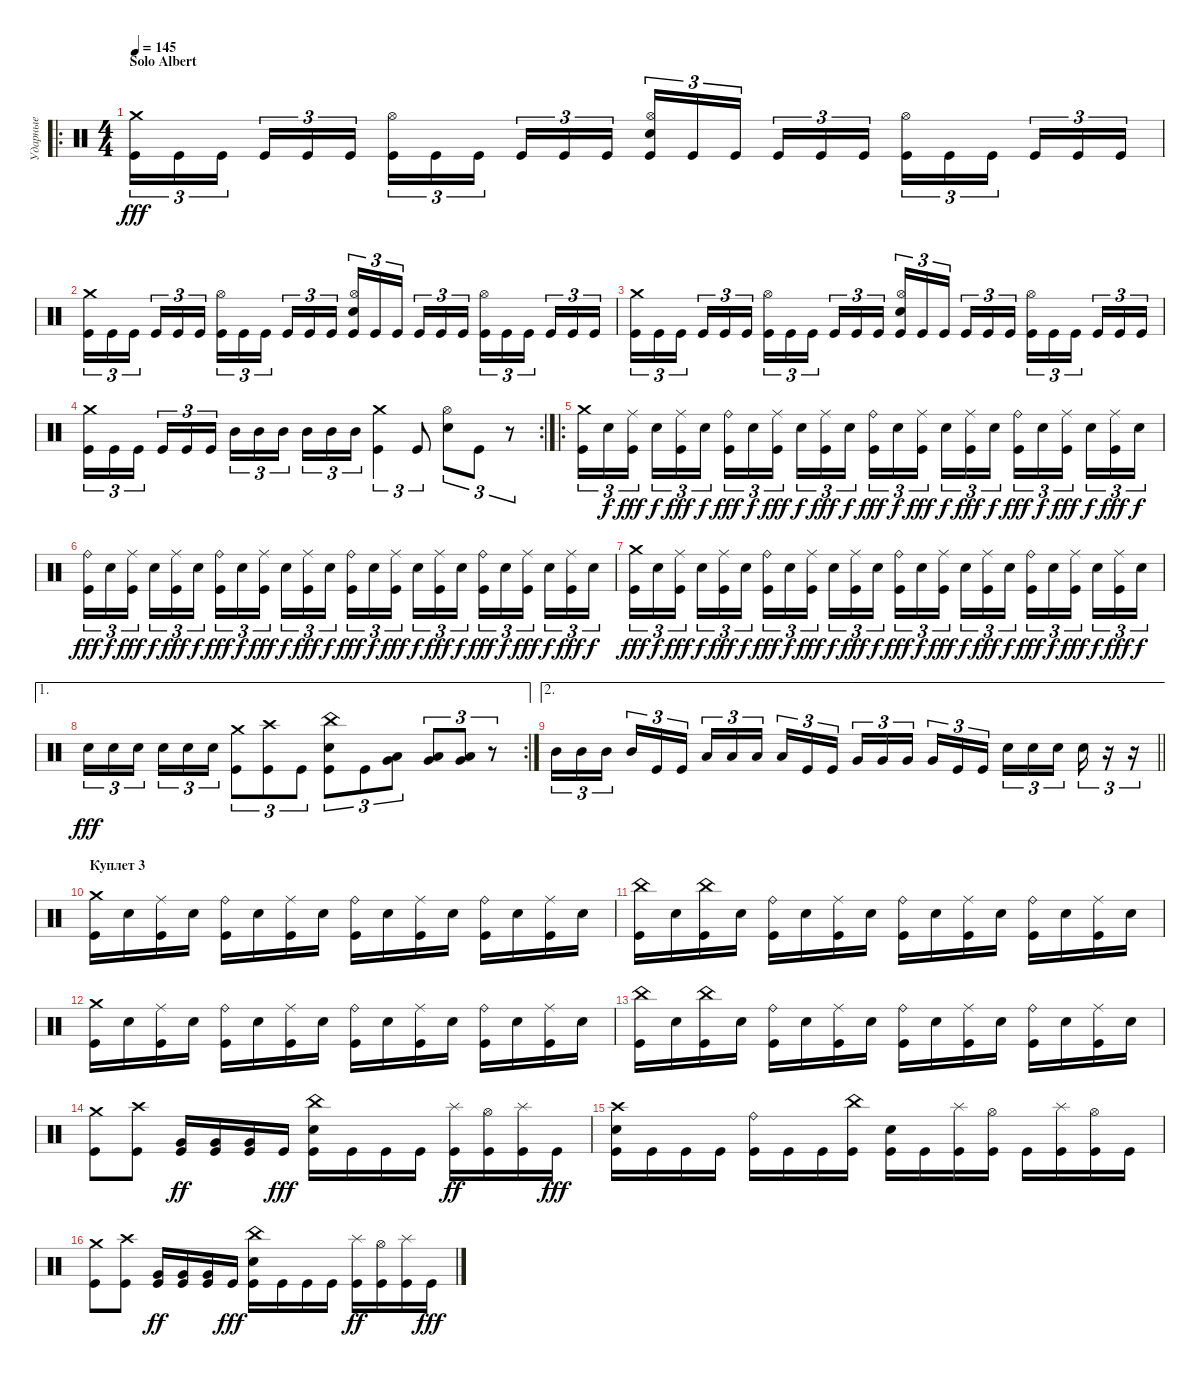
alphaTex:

\track ("Ударные" "Ударные") {instrument percussion}
\staff {score}
\articulation defaults
\ro
\ts (4 4)
\section ("" "Solo Albert")
\tempo 145
\clef neutral
\ks c
("Crash medium (hit)" "Kick (hit)").16{tu (3 2) dy fff} "Kick (hit)".16{tu (3 2)} "Kick (hit)".16{tu (3 2) beam splitsecondary} "Kick (hit)".16{tu (3 2)} "Kick (hit)".16{tu (3 2)} "Kick (hit)".16{tu (3 2)} ("Kick (hit)" "Hi-Hat (open)").16{tu (3 2)} "Kick (hit)".16{tu (3 2)} "Kick (hit)".16{tu (3 2) beam splitsecondary} "Kick (hit)".16{tu (3 2)} "Kick (hit)".16{tu (3 2)} "Kick (hit)".16{tu (3 2)} ("Kick (hit)" "Hi-Hat (open)" "Electric Snare (hit)").16{tu (3 2)} "Kick (hit)".16{tu (3 2)} "Kick (hit)".16{tu (3 2) beam splitsecondary} "Kick (hit)".16{tu (3 2)} "Kick (hit)".16{tu (3 2)} "Kick (hit)".16{tu (3 2)} ("Kick (hit)" "Hi-Hat (open)").16{tu (3 2)} "Kick (hit)".16{tu (3 2)} "Kick (hit)".16{tu (3 2) beam splitsecondary} "Kick (hit)".16{tu (3 2)} "Kick (hit)".16{tu (3 2)} "Kick (hit)".16{tu (3 2)} |
("Crash medium (hit)" "Kick (hit)").16{tu (3 2)} "Kick (hit)".16{tu (3 2)} "Kick (hit)".16{tu (3 2) beam splitsecondary} "Kick (hit)".16{tu (3 2)} "Kick (hit)".16{tu (3 2)} "Kick (hit)".16{tu (3 2)} ("Kick (hit)" "Hi-Hat (open)").16{tu (3 2)} "Kick (hit)".16{tu (3 2)} "Kick (hit)".16{tu (3 2) beam splitsecondary} "Kick (hit)".16{tu (3 2)} "Kick (hit)".16{tu (3 2)} "Kick (hit)".16{tu (3 2)} ("Kick (hit)" "Hi-Hat (open)" "Electric Snare (hit)").16{tu (3 2)} "Kick (hit)".16{tu (3 2)} "Kick (hit)".16{tu (3 2) beam splitsecondary} "Kick (hit)".16{tu (3 2)} "Kick (hit)".16{tu (3 2)} "Kick (hit)".16{tu (3 2)} ("Kick (hit)" "Hi-Hat (open)").16{tu (3 2)} "Kick (hit)".16{tu (3 2)} "Kick (hit)".16{tu (3 2) beam splitsecondary} "Kick (hit)".16{tu (3 2)} "Kick (hit)".16{tu (3 2)} "Kick (hit)".16{tu (3 2)} |
("Crash medium (hit)" "Kick (hit)").16{tu (3 2)} "Kick (hit)".16{tu (3 2)} "Kick (hit)".16{tu (3 2) beam splitsecondary} "Kick (hit)".16{tu (3 2)} "Kick (hit)".16{tu (3 2)} "Kick (hit)".16{tu (3 2)} ("Kick (hit)" "Hi-Hat (open)").16{tu (3 2)} "Kick (hit)".16{tu (3 2)} "Kick (hit)".16{tu (3 2) beam splitsecondary} "Kick (hit)".16{tu (3 2)} "Kick (hit)".16{tu (3 2)} "Kick (hit)".16{tu (3 2)} ("Kick (hit)" "Hi-Hat (open)" "Electric Snare (hit)").16{tu (3 2)} "Kick (hit)".16{tu (3 2)} "Kick (hit)".16{tu (3 2) beam splitsecondary} "Kick (hit)".16{tu (3 2)} "Kick (hit)".16{tu (3 2)} "Kick (hit)".16{tu (3 2)} ("Kick (hit)" "Hi-Hat (open)").16{tu (3 2)} "Kick (hit)".16{tu (3 2)} "Kick (hit)".16{tu (3 2) beam splitsecondary} "Kick (hit)".16{tu (3 2)} "Kick (hit)".16{tu (3 2)} "Kick (hit)".16{tu (3 2)} |
\rc 2
("Crash medium (hit)" "Kick (hit)").16{tu (3 2)} "Kick (hit)".16{tu (3 2)} "Kick (hit)".16{tu (3 2) beam splitsecondary} "Kick (hit)".16{tu (3 2)} "Kick (hit)".16{tu (3 2)} "Kick (hit)".16{tu (3 2)} "Mid Tom (hit)".16{tu (3 2)} "Mid Tom (hit)".16{tu (3 2)} "Mid Tom (hit)".16{tu (3 2) beam splitsecondary} "Mid Tom (hit)".16{tu (3 2)} "Mid Tom (hit)".16{tu (3 2)} "Mid Tom (hit)".16{tu (3 2)} ("Crash medium (hit)" "Kick (hit)").4{tu (3 2)} "Kick (hit)".8{tu (3 2)} ("Electric Snare (hit)" "Hi-Hat (open)").8{tu (3 2)} "Kick (hit)".8{tu (3 2)} r.8{tu (3 2)} |
\ro
("Crash medium (hit)" "Kick (hit)").16{tu (3 2)} "Electric Snare (hit)".16{tu (3 2) dy f} ("Kick (hit)" "Ride (middle)").16{tu (3 2) dy fff beam splitsecondary} "Electric Snare (hit)".16{tu (3 2) dy f} ("Kick (hit)" "Ride (middle)").16{tu (3 2) dy fff} "Electric Snare (hit)".16{tu (3 2) dy f} ("Kick (hit)" "Ride (bell)").16{tu (3 2) dy fff} "Electric Snare (hit)".16{tu (3 2) dy f} ("Kick (hit)" "Ride (middle)").16{tu (3 2) dy fff beam splitsecondary} "Electric Snare (hit)".16{tu (3 2) dy f} ("Kick (hit)" "Ride (middle)").16{tu (3 2) dy fff} "Electric Snare (hit)".16{tu (3 2) dy f} ("Kick (hit)" "Ride (bell)").16{tu (3 2) dy fff} "Electric Snare (hit)".16{tu (3 2) dy f} ("Kick (hit)" "Ride (middle)").16{tu (3 2) dy fff beam splitsecondary} "Electric Snare (hit)".16{tu (3 2) dy f} ("Kick (hit)" "Ride (middle)").16{tu (3 2) dy fff} "Electric Snare (hit)".16{tu (3 2) dy f} ("Kick (hit)" "Ride (bell)").16{tu (3 2) dy fff} "Electric Snare (hit)".16{tu (3 2) dy f} ("Kick (hit)" "Ride (middle)").16{tu (3 2) dy fff beam splitsecondary} "Electric Snare (hit)".16{tu (3 2) dy f} ("Kick (hit)" "Ride (middle)").16{tu (3 2) dy fff} "Electric Snare (hit)".16{tu (3 2) dy f} |
("Kick (hit)" "Ride (bell)").16{tu (3 2) dy fff} "Electric Snare (hit)".16{tu (3 2) dy f} ("Kick (hit)" "Ride (middle)").16{tu (3 2) dy fff beam splitsecondary} "Electric Snare (hit)".16{tu (3 2) dy f} ("Kick (hit)" "Ride (middle)").16{tu (3 2) dy fff} "Electric Snare (hit)".16{tu (3 2) dy f} ("Kick (hit)" "Ride (bell)").16{tu (3 2) dy fff} "Electric Snare (hit)".16{tu (3 2) dy f} ("Kick (hit)" "Ride (middle)").16{tu (3 2) dy fff beam splitsecondary} "Electric Snare (hit)".16{tu (3 2) dy f} ("Kick (hit)" "Ride (middle)").16{tu (3 2) dy fff} "Electric Snare (hit)".16{tu (3 2) dy f} ("Kick (hit)" "Ride (bell)").16{tu (3 2) dy fff} "Electric Snare (hit)".16{tu (3 2) dy f} ("Kick (hit)" "Ride (middle)").16{tu (3 2) dy fff beam splitsecondary} "Electric Snare (hit)".16{tu (3 2) dy f} ("Kick (hit)" "Ride (middle)").16{tu (3 2) dy fff} "Electric Snare (hit)".16{tu (3 2) dy f} ("Kick (hit)" "Ride (bell)").16{tu (3 2) dy fff} "Electric Snare (hit)".16{tu (3 2) dy f} ("Kick (hit)" "Ride (middle)").16{tu (3 2) dy fff beam splitsecondary} "Electric Snare (hit)".16{tu (3 2) dy f} ("Kick (hit)" "Ride (middle)").16{tu (3 2) dy fff} "Electric Snare (hit)".16{tu (3 2) dy f} |
("Crash medium (hit)" "Kick (hit)").16{tu (3 2) dy fff} "Electric Snare (hit)".16{tu (3 2) dy f} ("Kick (hit)" "Ride (middle)").16{tu (3 2) dy fff beam splitsecondary} "Electric Snare (hit)".16{tu (3 2) dy f} ("Kick (hit)" "Ride (middle)").16{tu (3 2) dy fff} "Electric Snare (hit)".16{tu (3 2) dy f} ("Kick (hit)" "Ride (bell)").16{tu (3 2) dy fff} "Electric Snare (hit)".16{tu (3 2) dy f} ("Kick (hit)" "Ride (middle)").16{tu (3 2) dy fff beam splitsecondary} "Electric Snare (hit)".16{tu (3 2) dy f} ("Kick (hit)" "Ride (middle)").16{tu (3 2) dy fff} "Electric Snare (hit)".16{tu (3 2) dy f} ("Kick (hit)" "Ride (bell)").16{tu (3 2) dy fff} "Electric Snare (hit)".16{tu (3 2) dy f} ("Kick (hit)" "Ride (middle)").16{tu (3 2) dy fff beam splitsecondary} "Electric Snare (hit)".16{tu (3 2) dy f} ("Kick (hit)" "Ride (middle)").16{tu (3 2) dy fff} "Electric Snare (hit)".16{tu (3 2) dy f} ("Kick (hit)" "Ride (bell)").16{tu (3 2) dy fff} "Electric Snare (hit)".16{tu (3 2) dy f} ("Kick (hit)" "Ride (middle)").16{tu (3 2) dy fff beam splitsecondary} "Electric Snare (hit)".16{tu (3 2) dy f} ("Kick (hit)" "Ride (middle)").16{tu (3 2) dy fff} "Electric Snare (hit)".16{tu (3 2) dy f} |
\ae 1
\rc 2 "Electric Snare (hit)".16{tu (3 2) dy fff} "Electric Snare (hit)".16{tu (3 2)} "Electric Snare (hit)".16{tu (3 2) beam splitsecondary} "Electric Snare (hit)".16{tu (3 2)} "Electric Snare (hit)".16{tu (3 2)} "Electric Snare (hit)".16{tu (3 2)}
("Crash medium (hit)" "Kick (hit)").8{tu (3 2)} ("Crash high (hit)" "Kick (hit)").8{tu (3 2)} "Kick (hit)".8{tu (3 2)} ("Electric Snare (hit)" "China (hit)" "Kick (hit)").8{tu (3 2)} "Kick (hit)".8{tu (3 2)} ("Low Tom (hit)" "Very Low Tom (hit)").8{tu (3 2)} ("Low Tom (hit)" "Very Low Tom (hit)").8{tu (3 2)} ("Low Tom (hit)" "Very Low Tom (hit)").8{tu (3 2)} r.8{tu (3 2)} |
\ae 2
\barLineRight lightlight "Mid Tom (hit)".16{tu (3 2)} "Mid Tom (hit)".16{tu (3 2)} "Mid Tom (hit)".16{tu (3 2) beam splitsecondary} "Mid Tom (hit)".16{tu (3 2)} "Kick (hit)".16{tu (3 2)} "Kick (hit)".16{tu (3 2)} "Low Tom (hit)".16{tu (3 2)} "Low Tom (hit)".16{tu (3 2)} "Low Tom (hit)".16{tu (3 2) beam splitsecondary} "Low Tom (hit)".16{tu (3 2)} "Kick (hit)".16{tu (3 2)} "Kick (hit)".16{tu (3 2)} "Very Low Tom (hit)".16{tu (3 2)} "Very Low Tom (hit)".16{tu (3 2)} "Very Low Tom (hit)".16{tu (3 2) beam splitsecondary} "Very Low Tom (hit)".16{tu (3 2)} "Kick (hit)".16{tu (3 2)} "Kick (hit)".16{tu (3 2)} "Electric Snare (hit)".16{tu (3 2)} "Electric Snare (hit)".16{tu (3 2)} "Electric Snare (hit)".16{tu (3 2) beam splitsecondary} "Electric Snare (hit)".16{tu (3 2)}
r.16{tu (3 2)} r.16{tu (3 2)} |
\section ("" "Куплет 3")
("Kick (hit)" "Crash medium (hit)").16 "Electric Snare (hit)".16 ("Kick (hit)" "Ride (middle)").16 "Electric Snare (hit)".16 ("Kick (hit)" "Ride (bell)").16 "Electric Snare (hit)".16 ("Kick (hit)" "Ride (middle)").16 "Electric Snare (hit)".16 ("Kick (hit)" "Ride (bell)").16 "Electric Snare (hit)".16 ("Kick (hit)" "Ride (middle)").16 "Electric Snare (hit)".16 ("Kick (hit)" "Ride (bell)").16 "Electric Snare (hit)".16 ("Kick (hit)" "Ride (middle)").16 "Electric Snare (hit)".16 |
("Kick (hit)" "China (hit)").16 "Electric Snare (hit)".16 ("Kick (hit)" "China (hit)").16 "Electric Snare (hit)".16 ("Kick (hit)" "Ride (bell)").16 "Electric Snare (hit)".16 ("Kick (hit)" "Ride (middle)").16 "Electric Snare (hit)".16 ("Kick (hit)" "Ride (bell)").16 "Electric Snare (hit)".16 ("Kick (hit)" "Ride (middle)").16 "Electric Snare (hit)".16 ("Kick (hit)" "Ride (bell)").16 "Electric Snare (hit)".16 ("Kick (hit)" "Ride (middle)").16 "Electric Snare (hit)".16 |
("Kick (hit)" "Crash medium (hit)").16 "Electric Snare (hit)".16 ("Kick (hit)" "Ride (middle)").16 "Electric Snare (hit)".16 ("Kick (hit)" "Ride (bell)").16 "Electric Snare (hit)".16 ("Kick (hit)" "Ride (middle)").16 "Electric Snare (hit)".16 ("Kick (hit)" "Ride (bell)").16 "Electric Snare (hit)".16 ("Kick (hit)" "Ride (middle)").16 "Electric Snare (hit)".16 ("Kick (hit)" "Ride (bell)").16 "Electric Snare (hit)".16 ("Kick (hit)" "Ride (middle)").16 "Electric Snare (hit)".16 |
("Kick (hit)" "China (hit)").16 "Electric Snare (hit)".16 ("Kick (hit)" "China (hit)").16 "Electric Snare (hit)".16 ("Kick (hit)" "Ride (bell)").16 "Electric Snare (hit)".16 ("Kick (hit)" "Ride (middle)").16 "Electric Snare (hit)".16 ("Kick (hit)" "Ride (bell)").16 "Electric Snare (hit)".16 ("Kick (hit)" "Ride (middle)").16 "Electric Snare (hit)".16 ("Kick (hit)" "Ride (bell)").16 "Electric Snare (hit)".16 ("Kick (hit)" "Ride (middle)").16 "Electric Snare (hit)".16 |
("Crash medium (hit)" "Kick (hit)").8 ("Crash high (hit)" "Kick (hit)").8 ("Kick (hit)" "Very Low Tom (hit)").16{dy ff} ("Kick (hit)" "Very Low Tom (hit)").16 ("Kick (hit)" "Very Low Tom (hit)").16 "Kick (hit)".16{dy fff} ("Kick (hit)" "Electric Snare (hit)" "China (hit)").16 "Kick (hit)".16 "Kick (hit)".16 "Kick (hit)".16 ("Kick (hit)" "Splash (hit)").16{dy ff} ("Kick (hit)" "Hi-Hat (open)").16 ("Kick (hit)" "Splash (hit)").16 "Kick (hit)".16{dy fff} |
("Kick (hit)" "Electric Snare (hit)" "Crash high (hit)").16 "Kick (hit)".16 "Kick (hit)".16 "Kick (hit)".16 ("Kick (hit)" "Ride (bell)").16 "Kick (hit)".16 "Kick (hit)".16 ("Kick (hit)" "China (hit)").16 ("Kick (hit)" "Electric Snare (hit)").16 "Kick (hit)".16 ("Kick (hit)" "Splash (hit)").16 ("Kick (hit)" "Hi-Hat (open)").16 "Kick (hit)".16 ("Kick (hit)" "Splash (hit)").16 ("Kick (hit)" "Hi-Hat (open)").16 "Kick (hit)".16 |
("Crash medium (hit)" "Kick (hit)").8 ("Crash high (hit)" "Kick (hit)").8 ("Kick (hit)" "Very Low Tom (hit)").16{dy ff} ("Kick (hit)" "Very Low Tom (hit)").16 ("Kick (hit)" "Very Low Tom (hit)").16 "Kick (hit)".16{dy fff} ("Kick (hit)" "Electric Snare (hit)" "China (hit)").16 "Kick (hit)".16 "Kick (hit)".16 "Kick (hit)".16 ("Kick (hit)" "Splash (hit)").16{dy ff} ("Kick (hit)" "Hi-Hat (open)").16 ("Kick (hit)" "Splash (hit)").16 "Kick (hit)".16{dy fff}
